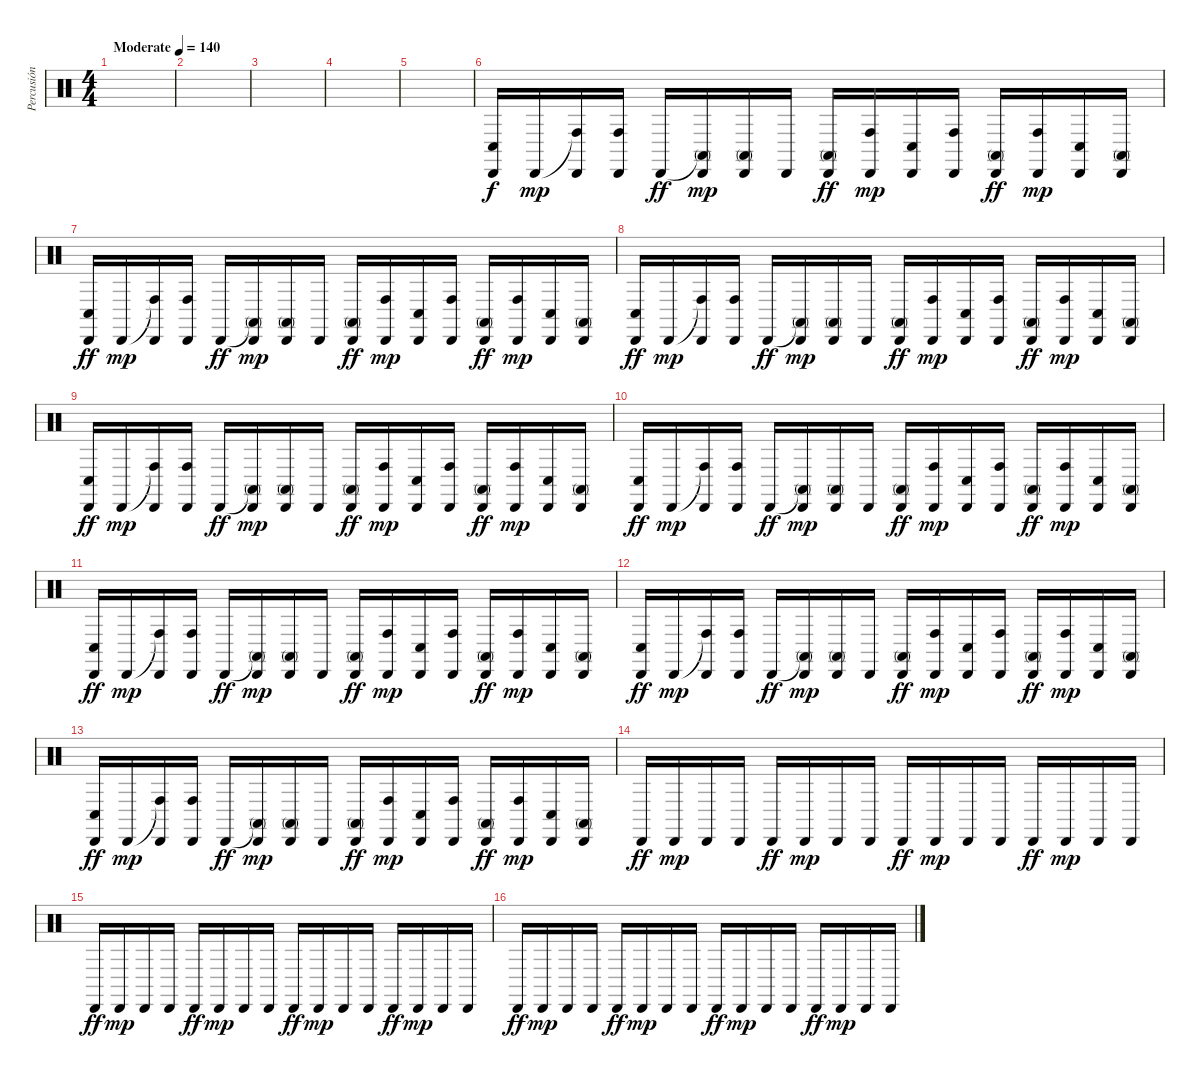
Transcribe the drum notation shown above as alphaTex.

\track ("Percusión" "Percusión") {instrument percussion}
\staff {score}
\articulation defaults
\ts (4 4)
\tempo (140 "Moderate")
\clef neutral
\ks c
|
|
|
|
|
("Conga low (hit)" "Cabasa (hit)").16 "Cabasa (hit)".16{dy mp} ("Conga high (hit)"{t} "Cabasa (hit)").16 ("Conga high (hit)" "Cabasa (hit)").16 "Cabasa (hit)".16{dy ff} ("Conga high (mute)"{t} "Cabasa (hit)").16{dy mp} ("Conga high (mute)" "Cabasa (hit)").16 "Cabasa (hit)".16 ("Conga high (mute)" "Cabasa (hit)").16{dy ff} ("Conga high (hit)" "Cabasa (hit)").16{dy mp} ("Conga low (hit)" "Cabasa (hit)").16 ("Conga high (hit)" "Cabasa (hit)").16 ("Conga high (mute)" "Cabasa (hit)").16{dy ff} ("Conga high (hit)" "Cabasa (hit)").16{dy mp} ("Conga low (hit)" "Cabasa (hit)").16 ("Conga high (mute)" "Cabasa (hit)").16 |
("Conga low (hit)" "Cabasa (hit)").16{dy ff} "Cabasa (hit)".16{dy mp} ("Conga high (hit)"{t} "Cabasa (hit)").16 ("Conga high (hit)" "Cabasa (hit)").16 "Cabasa (hit)".16{dy ff} ("Conga high (mute)"{t} "Cabasa (hit)").16{dy mp} ("Conga high (mute)" "Cabasa (hit)").16 "Cabasa (hit)".16 ("Conga high (mute)" "Cabasa (hit)").16{dy ff} ("Conga high (hit)" "Cabasa (hit)").16{dy mp} ("Conga low (hit)" "Cabasa (hit)").16 ("Conga high (hit)" "Cabasa (hit)").16 ("Conga high (mute)" "Cabasa (hit)").16{dy ff} ("Conga high (hit)" "Cabasa (hit)").16{dy mp} ("Conga low (hit)" "Cabasa (hit)").16 ("Conga high (mute)" "Cabasa (hit)").16 |
("Conga low (hit)" "Cabasa (hit)").16{dy ff} "Cabasa (hit)".16{dy mp} ("Conga high (hit)"{t} "Cabasa (hit)").16 ("Conga high (hit)" "Cabasa (hit)").16 "Cabasa (hit)".16{dy ff} ("Conga high (mute)"{t} "Cabasa (hit)").16{dy mp} ("Conga high (mute)" "Cabasa (hit)").16 "Cabasa (hit)".16 ("Conga high (mute)" "Cabasa (hit)").16{dy ff} ("Conga high (hit)" "Cabasa (hit)").16{dy mp} ("Conga low (hit)" "Cabasa (hit)").16 ("Conga high (hit)" "Cabasa (hit)").16 ("Conga high (mute)" "Cabasa (hit)").16{dy ff} ("Conga high (hit)" "Cabasa (hit)").16{dy mp} ("Conga low (hit)" "Cabasa (hit)").16 ("Conga high (mute)" "Cabasa (hit)").16 |
("Conga low (hit)" "Cabasa (hit)").16{dy ff} "Cabasa (hit)".16{dy mp} ("Conga high (hit)"{t} "Cabasa (hit)").16 ("Conga high (hit)" "Cabasa (hit)").16 "Cabasa (hit)".16{dy ff} ("Conga high (mute)"{t} "Cabasa (hit)").16{dy mp} ("Conga high (mute)" "Cabasa (hit)").16 "Cabasa (hit)".16 ("Conga high (mute)" "Cabasa (hit)").16{dy ff} ("Conga high (hit)" "Cabasa (hit)").16{dy mp} ("Conga low (hit)" "Cabasa (hit)").16 ("Conga high (hit)" "Cabasa (hit)").16 ("Conga high (mute)" "Cabasa (hit)").16{dy ff} ("Conga high (hit)" "Cabasa (hit)").16{dy mp} ("Conga low (hit)" "Cabasa (hit)").16 ("Conga high (mute)" "Cabasa (hit)").16 |
("Conga low (hit)" "Cabasa (hit)").16{dy ff} "Cabasa (hit)".16{dy mp} ("Conga high (hit)"{t} "Cabasa (hit)").16 ("Conga high (hit)" "Cabasa (hit)").16 "Cabasa (hit)".16{dy ff} ("Conga high (mute)"{t} "Cabasa (hit)").16{dy mp} ("Conga high (mute)" "Cabasa (hit)").16 "Cabasa (hit)".16 ("Conga high (mute)" "Cabasa (hit)").16{dy ff} ("Conga high (hit)" "Cabasa (hit)").16{dy mp} ("Conga low (hit)" "Cabasa (hit)").16 ("Conga high (hit)" "Cabasa (hit)").16 ("Conga high (mute)" "Cabasa (hit)").16{dy ff} ("Conga high (hit)" "Cabasa (hit)").16{dy mp} ("Conga low (hit)" "Cabasa (hit)").16 ("Conga high (mute)" "Cabasa (hit)").16 |
("Conga low (hit)" "Cabasa (hit)").16{dy ff} "Cabasa (hit)".16{dy mp} ("Conga high (hit)"{t} "Cabasa (hit)").16 ("Conga high (hit)" "Cabasa (hit)").16 "Cabasa (hit)".16{dy ff} ("Conga high (mute)"{t} "Cabasa (hit)").16{dy mp} ("Conga high (mute)" "Cabasa (hit)").16 "Cabasa (hit)".16 ("Conga high (mute)" "Cabasa (hit)").16{dy ff} ("Conga high (hit)" "Cabasa (hit)").16{dy mp} ("Conga low (hit)" "Cabasa (hit)").16 ("Conga high (hit)" "Cabasa (hit)").16 ("Conga high (mute)" "Cabasa (hit)").16{dy ff} ("Conga high (hit)" "Cabasa (hit)").16{dy mp} ("Conga low (hit)" "Cabasa (hit)").16 ("Conga high (mute)" "Cabasa (hit)").16 |
("Conga low (hit)" "Cabasa (hit)").16{dy ff} "Cabasa (hit)".16{dy mp} ("Conga high (hit)"{t} "Cabasa (hit)").16 ("Conga high (hit)" "Cabasa (hit)").16 "Cabasa (hit)".16{dy ff} ("Conga high (mute)"{t} "Cabasa (hit)").16{dy mp} ("Conga high (mute)" "Cabasa (hit)").16 "Cabasa (hit)".16 ("Conga high (mute)" "Cabasa (hit)").16{dy ff} ("Conga high (hit)" "Cabasa (hit)").16{dy mp} ("Conga low (hit)" "Cabasa (hit)").16 ("Conga high (hit)" "Cabasa (hit)").16 ("Conga high (mute)" "Cabasa (hit)").16{dy ff} ("Conga high (hit)" "Cabasa (hit)").16{dy mp} ("Conga low (hit)" "Cabasa (hit)").16 ("Conga high (mute)" "Cabasa (hit)").16 |
("Conga low (hit)" "Cabasa (hit)").16{dy ff} "Cabasa (hit)".16{dy mp} ("Conga high (hit)"{t} "Cabasa (hit)").16 ("Conga high (hit)" "Cabasa (hit)").16 "Cabasa (hit)".16{dy ff} ("Conga high (mute)"{t} "Cabasa (hit)").16{dy mp} ("Conga high (mute)" "Cabasa (hit)").16 "Cabasa (hit)".16 ("Conga high (mute)" "Cabasa (hit)").16{dy ff} ("Conga high (hit)" "Cabasa (hit)").16{dy mp} ("Conga low (hit)" "Cabasa (hit)").16 ("Conga high (hit)" "Cabasa (hit)").16 ("Conga high (mute)" "Cabasa (hit)").16{dy ff} ("Conga high (hit)" "Cabasa (hit)").16{dy mp} ("Conga low (hit)" "Cabasa (hit)").16 ("Conga high (mute)" "Cabasa (hit)").16 |
"Cabasa (hit)".16{dy ff} "Cabasa (hit)".16{dy mp} "Cabasa (hit)".16 "Cabasa (hit)".16 "Cabasa (hit)".16{dy ff} "Cabasa (hit)".16{dy mp} "Cabasa (hit)".16 "Cabasa (hit)".16 "Cabasa (hit)".16{dy ff} "Cabasa (hit)".16{dy mp} "Cabasa (hit)".16 "Cabasa (hit)".16 "Cabasa (hit)".16{dy ff} "Cabasa (hit)".16{dy mp} "Cabasa (hit)".16 "Cabasa (hit)".16 |
"Cabasa (hit)".16{dy ff} "Cabasa (hit)".16{dy mp} "Cabasa (hit)".16 "Cabasa (hit)".16 "Cabasa (hit)".16{dy ff} "Cabasa (hit)".16{dy mp} "Cabasa (hit)".16 "Cabasa (hit)".16 "Cabasa (hit)".16{dy ff} "Cabasa (hit)".16{dy mp} "Cabasa (hit)".16 "Cabasa (hit)".16 "Cabasa (hit)".16{dy ff} "Cabasa (hit)".16{dy mp} "Cabasa (hit)".16 "Cabasa (hit)".16 |
"Cabasa (hit)".16{dy ff} "Cabasa (hit)".16{dy mp} "Cabasa (hit)".16 "Cabasa (hit)".16 "Cabasa (hit)".16{dy ff} "Cabasa (hit)".16{dy mp} "Cabasa (hit)".16 "Cabasa (hit)".16 "Cabasa (hit)".16{dy ff} "Cabasa (hit)".16{dy mp} "Cabasa (hit)".16 "Cabasa (hit)".16 "Cabasa (hit)".16{dy ff} "Cabasa (hit)".16{dy mp} "Cabasa (hit)".16 "Cabasa (hit)".16
